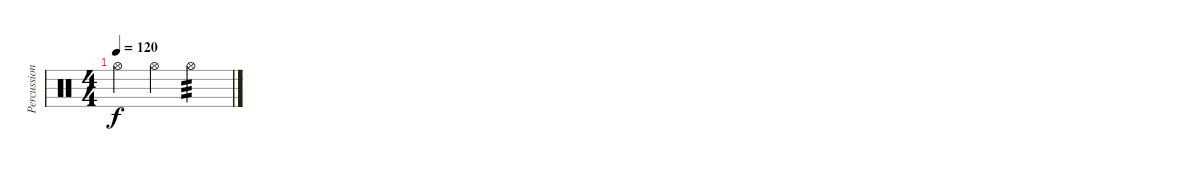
\track ("Percussioni" "Percussion") {instrument percussion}
\staff {score}
\articulation defaults
\ts (4 4)
\tempo 120
\clef neutral
\ks c "Hi-Hat (open)".4{dy f} "Hi-Hat (open)".4 "Hi-Hat (open)".2{tp 3}
